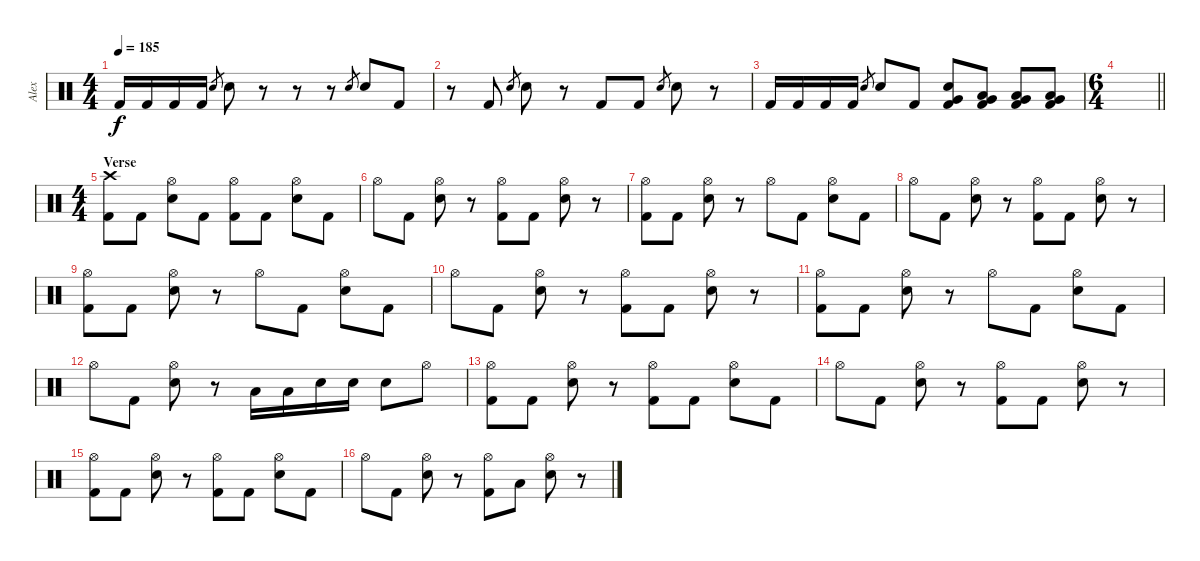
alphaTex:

\track ("Alex" "Alex") {instrument percussion}
\staff {score}
\articulation defaults
\ts (4 4)
\tempo 185
\clef neutral
\ks c "Kick (hit) 2".16{dy f} "Kick (hit) 2".16 "Kick (hit) 2".16 "Kick (hit) 2".16 "Electric Snare (hit)".8{gr} "Electric Snare (hit)".8
r.8 r.8 r.8 "Electric Snare (hit)".8{gr} "Electric Snare (hit)".8 "Kick (hit) 2".8 |
r.8 "Kick (hit) 2".8 "Electric Snare (hit)".8{gr} "Electric Snare (hit)".8 r.8 "Kick (hit) 2".8 "Kick (hit) 2".8 "Electric Snare (hit)".8{gr} "Electric Snare (hit)".8 r.8 |
"Kick (hit) 2".16 "Kick (hit) 2".16 "Kick (hit) 2".16 "Kick (hit) 2".16 "Electric Snare (hit)".8{gr} "Electric Snare (hit)".8 "Kick (hit) 2".8 ("Very Low Tom (hit)" "Electric Snare (hit)" "Kick (hit) 2").8 ("Very Low Tom (hit)" "Low Tom (hit)" "Kick (hit) 2").8 ("Very Low Tom (hit)" "Low Floor Tom (hit)" "Kick (hit) 2").8 ("Very Low Tom (hit)" "Low Floor Tom (hit)" "Kick (hit) 2").8 |
\ts (6 4)
\barLineRight lightlight
|
\ts (4 4)
\section ("" "Verse")
("Crash high (hit)" "Kick (hit) 2").8 "Kick (hit) 2".8 ("Hi-Hat (open)" "Electric Snare (hit)").8 "Kick (hit) 2".8 ("Hi-Hat (open)" "Kick (hit) 2").8 "Kick (hit) 2".8 ("Hi-Hat (open)" "Electric Snare (hit)").8 "Kick (hit) 2".8 |
"Hi-Hat (open)".8 "Kick (hit) 2".8 ("Hi-Hat (open)" "Electric Snare (hit)").8 r.8 ("Hi-Hat (open)" "Kick (hit) 2").8 "Kick (hit) 2".8 ("Hi-Hat (open)" "Electric Snare (hit)").8 r.8 |
("Hi-Hat (open)" "Kick (hit) 2").8 "Kick (hit) 2".8 ("Hi-Hat (open)" "Electric Snare (hit)").8 r.8 "Hi-Hat (open)".8 "Kick (hit) 2".8 ("Hi-Hat (open)" "Electric Snare (hit)").8 "Kick (hit) 2".8 |
"Hi-Hat (open)".8 "Kick (hit) 2".8 ("Hi-Hat (open)" "Electric Snare (hit)").8 r.8 ("Hi-Hat (open)" "Kick (hit) 2").8 "Kick (hit) 2".8 ("Hi-Hat (open)" "Electric Snare (hit)").8 r.8 |
("Hi-Hat (open)" "Kick (hit) 2").8 "Kick (hit) 2".8 ("Hi-Hat (open)" "Electric Snare (hit)").8 r.8 "Hi-Hat (open)".8 "Kick (hit) 2".8 ("Hi-Hat (open)" "Electric Snare (hit)").8 "Kick (hit) 2".8 |
"Hi-Hat (open)".8 "Kick (hit) 2".8 ("Hi-Hat (open)" "Electric Snare (hit)").8 r.8 ("Hi-Hat (open)" "Kick (hit) 2").8 "Kick (hit) 2".8 ("Hi-Hat (open)" "Electric Snare (hit)").8 r.8 |
("Hi-Hat (open)" "Kick (hit) 2").8 "Kick (hit) 2".8 ("Hi-Hat (open)" "Electric Snare (hit)").8 r.8 "Hi-Hat (open)".8 "Kick (hit) 2".8 ("Hi-Hat (open)" "Electric Snare (hit)").8 "Kick (hit) 2".8 |
"Hi-Hat (open)".8 "Kick (hit) 2".8 ("Hi-Hat (open)" "Electric Snare (hit)").8 r.8 "Low Tom (hit)".16 "Low Tom (hit)".16 "Electric Snare (hit)".16 "Electric Snare (hit)".16 "Electric Snare (hit)".8 "Hi-Hat (open)".8 |
("Hi-Hat (open)" "Kick (hit) 2").8 "Kick (hit) 2".8 ("Hi-Hat (open)" "Electric Snare (hit)").8 r.8 ("Hi-Hat (open)" "Kick (hit) 2").8 "Kick (hit) 2".8 ("Hi-Hat (open)" "Electric Snare (hit)").8 "Kick (hit) 2".8 |
"Hi-Hat (open)".8 "Kick (hit) 2".8 ("Hi-Hat (open)" "Electric Snare (hit)").8 r.8 ("Hi-Hat (open)" "Kick (hit) 2").8 "Kick (hit) 2".8 ("Hi-Hat (open)" "Electric Snare (hit)").8 r.8 |
("Hi-Hat (open)" "Kick (hit) 2").8 "Kick (hit) 2".8 ("Hi-Hat (open)" "Electric Snare (hit)").8 r.8 ("Hi-Hat (open)" "Kick (hit) 2").8 "Kick (hit) 2".8 ("Hi-Hat (open)" "Electric Snare (hit)").8 "Kick (hit) 2".8 |
"Hi-Hat (open)".8 "Kick (hit) 2".8 ("Hi-Hat (open)" "Electric Snare (hit)").8 r.8 ("Hi-Hat (open)" "Kick (hit) 2").8 "Low Tom (hit)".8 ("Hi-Hat (open)" "Electric Snare (hit)").8 r.8
